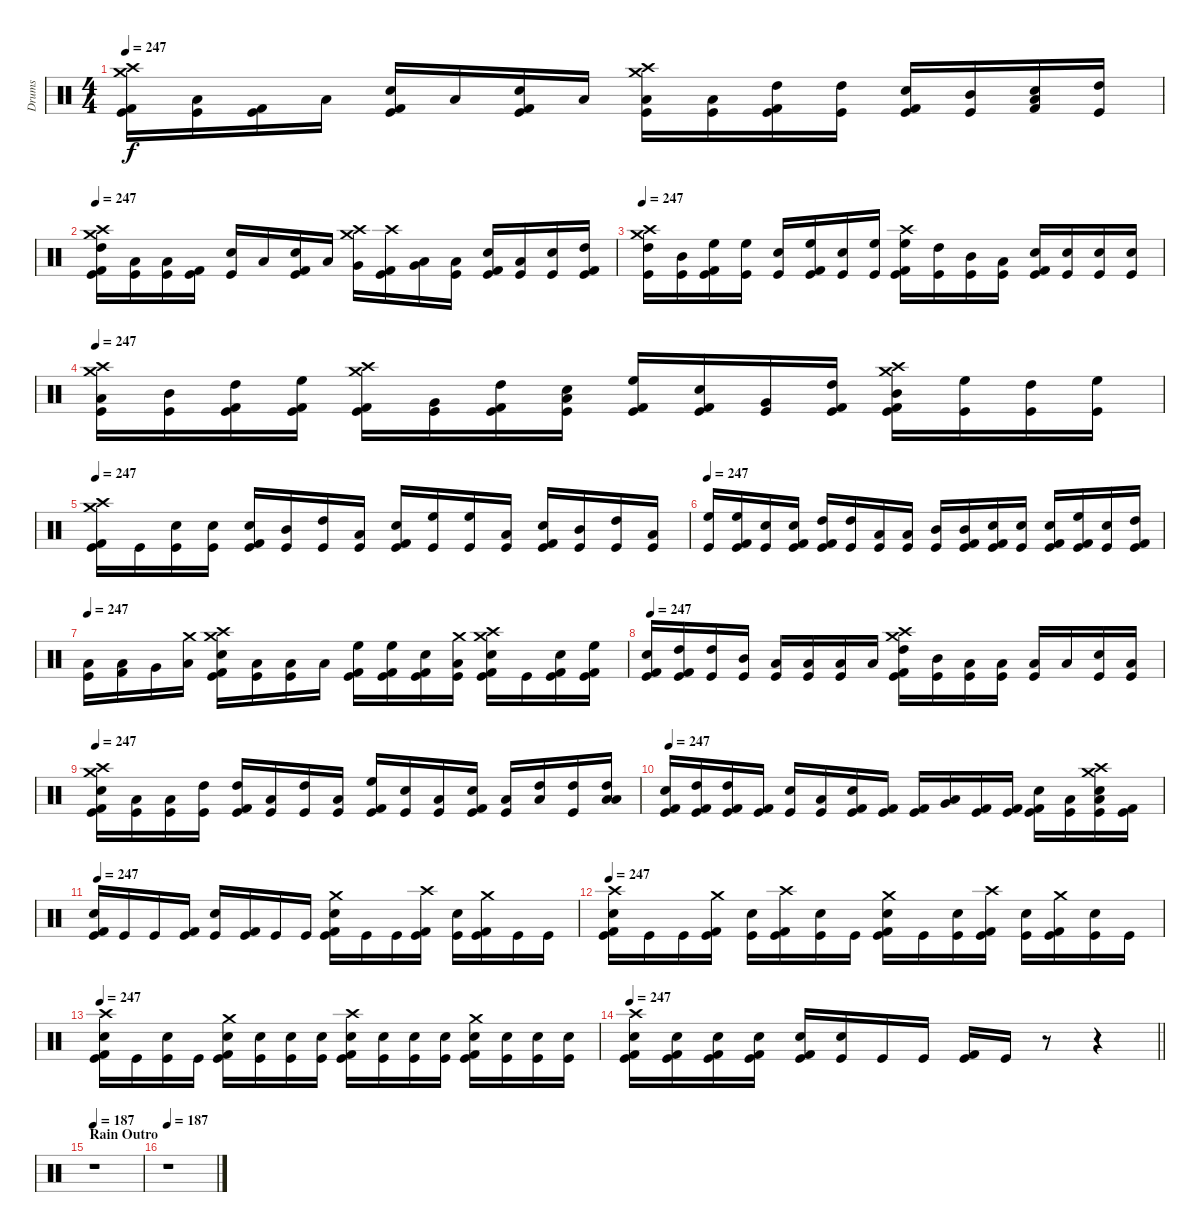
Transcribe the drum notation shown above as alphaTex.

\track ("Drums" "Drums") {instrument percussion}
\staff {score}
\articulation defaults
\ts (4 4)
\tempo 247
\clef neutral
\ks c
("Crash high (hit)" "Crash medium (hit)" "Kick (hit) 2" "Kick (hit)").16{dy f} ("Low Tom (hit)" "Kick (hit)").16 ("Kick (hit) 2" "Kick (hit)").16 "Low Floor Tom (hit)".16 ("Snare (hit) 2" "Kick (hit) 2" "Kick (hit)").16 "Low Floor Tom (hit)".16 ("Snare (hit) 2" "Kick (hit) 2" "Kick (hit)").16 "Low Floor Tom (hit)".16 ("Crash high (hit)" "Crash medium (hit)" "Low Tom (hit)" "Kick (hit)").16 ("Low Tom (hit)" "Kick (hit)").16 ("High Tom (hit)" "Kick (hit) 2" "Kick (hit)").16 ("High Tom (hit)" "Kick (hit)").16 ("Snare (hit) 2" "Kick (hit) 2" "Kick (hit)").16 ("Mid Tom (hit)" "Kick (hit)").16 ("Snare (hit) 2" "Kick (hit) 2" "Low Floor Tom (hit)").16 ("High Tom (hit)" "Kick (hit)").16 |
\tempo 247
("Crash high (hit)" "Crash medium (hit)" "High Tom (hit)" "Kick (hit) 2" "Kick (hit)").16 ("Low Tom (hit)" "Kick (hit)").16 ("Low Tom (hit)" "Kick (hit)").16 ("Kick (hit) 2" "Kick (hit)").16 ("Snare (hit) 2" "Kick (hit)").16 "Low Floor Tom (hit)".16 ("Snare (hit) 2" "Kick (hit) 2" "Kick (hit)").16 "Low Floor Tom (hit)".16 ("Crash high (hit)" "Crash medium (hit)" "Very Low Tom (hit)").16 ("Crash high (hit)" "Kick (hit) 2" "Kick (hit)").16 ("Very Low Tom (hit)" "Low Floor Tom (hit)").16 ("Low Tom (hit)" "Kick (hit)").16 ("Snare (hit) 2" "Kick (hit) 2" "Kick (hit)").16 ("Low Tom (hit)" "Kick (hit)").16 ("Snare (hit) 2" "Kick (hit)").16 ("High Tom (hit)" "Kick (hit) 2" "Kick (hit)").16 |
\tempo 247
("Crash high (hit)" "Crash medium (hit)" "High Tom (hit)" "Kick (hit)").16 ("Mid Tom (hit)" "Kick (hit)").16 ("High Floor Tom (hit)" "Kick (hit) 2" "Kick (hit)").16 ("High Floor Tom (hit)" "Kick (hit)").16 ("Snare (hit) 2" "Kick (hit)").16 ("High Floor Tom (hit)" "Kick (hit) 2" "Kick (hit)").16 ("Snare (hit) 2" "Kick (hit)").16 ("High Floor Tom (hit)" "Kick (hit)").16 ("Crash high (hit)" "High Floor Tom (hit)" "Kick (hit) 2" "Kick (hit)").16 ("High Tom (hit)" "Kick (hit)").16 ("Mid Tom (hit)" "Kick (hit)").16 ("Low Tom (hit)" "Kick (hit)").16 ("Snare (hit) 2" "Kick (hit) 2" "Kick (hit)").16 ("Snare (hit) 2" "Kick (hit)").16 ("Snare (hit) 2" "Kick (hit)").16 ("Snare (hit) 2" "Kick (hit)").16 |
\tempo 247
("Crash high (hit)" "Crash medium (hit)" "Low Tom (hit)" "Kick (hit)").16 ("Mid Tom (hit)" "Kick (hit)").16 ("High Tom (hit)" "Kick (hit) 2" "Kick (hit)").16 ("High Floor Tom (hit)" "Kick (hit) 2" "Kick (hit)").16 ("Crash high (hit)" "Crash medium (hit)" "Kick (hit) 2" "Kick (hit)").16 ("Very Low Tom (hit)" "Kick (hit)").16 ("High Tom (hit)" "Kick (hit) 2" "Kick (hit)").16 ("Snare (hit) 2" "Low Floor Tom (hit)" "Kick (hit)").16 ("High Floor Tom (hit)" "Kick (hit) 2" "Kick (hit)").16 ("Snare (hit) 2" "Kick (hit) 2" "Kick (hit)").16 ("Very Low Tom (hit)" "Kick (hit)").16 ("High Tom (hit)" "Kick (hit) 2" "Kick (hit)").16 ("Crash high (hit)" "Crash medium (hit)" "Mid Tom (hit)" "Kick (hit) 2" "Kick (hit)").16 ("High Floor Tom (hit)" "Kick (hit)").16 ("High Tom (hit)" "Kick (hit)").16 ("High Floor Tom (hit)" "Kick (hit)").16 |
\tempo 247
("Crash high (hit)" "Crash medium (hit)" "Kick (hit) 2" "Kick (hit)").16 "Kick (hit)".16 ("Snare (hit) 2" "Kick (hit)").16 ("Snare (hit) 2" "Kick (hit)").16 ("Snare (hit) 2" "Kick (hit) 2" "Kick (hit)").16 ("Mid Tom (hit)" "Kick (hit)").16 ("High Tom (hit)" "Kick (hit)").16 ("Low Tom (hit)" "Kick (hit)").16 ("Snare (hit) 2" "Kick (hit) 2" "Kick (hit)").16 ("High Floor Tom (hit)" "Kick (hit)").16 ("High Floor Tom (hit)" "Kick (hit)").16 ("Low Tom (hit)" "Kick (hit)").16 ("Snare (hit) 2" "Kick (hit) 2" "Kick (hit)").16 ("Mid Tom (hit)" "Kick (hit)").16 ("High Tom (hit)" "Kick (hit)").16 ("Low Tom (hit)" "Kick (hit)").16 |
\tempo 247
("High Floor Tom (hit)" "Kick (hit)").16 ("High Floor Tom (hit)" "Kick (hit) 2" "Kick (hit)").16 ("Snare (hit) 2" "Kick (hit)").16 ("Snare (hit) 2" "Kick (hit) 2" "Kick (hit)").16 ("High Tom (hit)" "Kick (hit) 2" "Kick (hit)").16 ("High Tom (hit)" "Kick (hit)").16 ("Low Tom (hit)" "Kick (hit)").16 ("Low Tom (hit)" "Kick (hit)").16 ("Mid Tom (hit)" "Kick (hit)").16 ("Mid Tom (hit)" "Kick (hit) 2" "Kick (hit)").16 ("Snare (hit) 2" "Kick (hit) 2" "Kick (hit)").16 ("Snare (hit) 2" "Kick (hit)").16 ("Snare (hit) 2" "Kick (hit) 2" "Kick (hit)").16 ("High Floor Tom (hit)" "Kick (hit) 2" "Kick (hit)").16 ("Snare (hit) 2" "Kick (hit)").16 ("High Tom (hit)" "Kick (hit) 2" "Kick (hit)").16 |
\tempo 247
("Low Tom (hit)" "Kick (hit)").16 ("Kick (hit) 2" "Low Floor Tom (hit)").16 "Very Low Tom (hit)".16 ("Crash medium (hit)" "Low Floor Tom (hit)").16 ("Crash high (hit)" "Crash medium (hit)" "Snare (hit) 2" "Kick (hit) 2" "Kick (hit)").16 ("Low Tom (hit)" "Kick (hit)").16 ("Low Tom (hit)" "Kick (hit)").16 "Low Floor Tom (hit)".16 ("High Floor Tom (hit)" "Kick (hit) 2" "Kick (hit)").16 ("High Floor Tom (hit)" "Kick (hit) 2" "Kick (hit)").16 ("Snare (hit) 2" "Kick (hit) 2" "Kick (hit)").16 ("Crash medium (hit)" "Low Tom (hit)" "Kick (hit)").16 ("Crash high (hit)" "Crash medium (hit)" "Snare (hit) 2" "Kick (hit) 2" "Kick (hit)").16 "Kick (hit)".16 ("Snare (hit) 2" "Kick (hit) 2" "Kick (hit)").16 ("High Floor Tom (hit)" "Kick (hit) 2" "Kick (hit)").16 |
\tempo 247
("Snare (hit) 2" "Kick (hit) 2" "Kick (hit)").16 ("High Tom (hit)" "Kick (hit) 2" "Kick (hit)").16 ("High Tom (hit)" "Kick (hit)").16 ("Mid Tom (hit)" "Kick (hit)").16 ("Low Tom (hit)" "Kick (hit)").16 ("Low Tom (hit)" "Kick (hit)").16 ("Low Tom (hit)" "Kick (hit)").16 "Low Floor Tom (hit)".16 ("Crash high (hit)" "Crash medium (hit)" "High Tom (hit)" "Kick (hit) 2" "Kick (hit)").16 ("Mid Tom (hit)" "Kick (hit)").16 ("Low Tom (hit)" "Kick (hit)").16 ("Low Tom (hit)" "Kick (hit)").16 ("Low Tom (hit)" "Kick (hit)").16 "Low Floor Tom (hit)".16 ("Snare (hit) 2" "Kick (hit)").16 ("Low Tom (hit)" "Kick (hit)").16 |
\tempo 247
("Crash high (hit)" "Crash medium (hit)" "Snare (hit) 2" "Kick (hit) 2" "Kick (hit)").16 ("Low Tom (hit)" "Kick (hit)").16 ("Low Tom (hit)" "Kick (hit)").16 ("High Tom (hit)" "Kick (hit)").16 ("High Tom (hit)" "Kick (hit) 2" "Kick (hit)").16 ("Low Tom (hit)" "Kick (hit)").16 ("High Tom (hit)" "Kick (hit)").16 ("Low Tom (hit)" "Kick (hit)").16 ("High Floor Tom (hit)" "Kick (hit) 2" "Kick (hit)").16 ("Snare (hit) 2" "Kick (hit)").16 ("Low Tom (hit)" "Kick (hit)").16 ("Snare (hit) 2" "Kick (hit) 2" "Kick (hit)").16 ("Low Tom (hit)" "Kick (hit)").16 ("High Tom (hit)" "Low Floor Tom (hit)").16 ("High Tom (hit)" "Kick (hit)").16 ("High Tom (hit)" "Low Tom (hit)" "Low Floor Tom (hit)").16 |
\tempo 247
("Snare (hit) 2" "Kick (hit) 2" "Kick (hit)").16 ("High Tom (hit)" "Kick (hit) 2" "Kick (hit)").16 ("High Tom (hit)" "Kick (hit) 2" "Kick (hit)").16 ("Kick (hit) 2" "Kick (hit)").16 ("Snare (hit) 2" "Kick (hit)").16 ("Low Tom (hit)" "Kick (hit)").16 ("Snare (hit) 2" "Kick (hit) 2" "Kick (hit)").16 ("Kick (hit) 2" "Kick (hit)").16 ("Kick (hit) 2" "Kick (hit)").16 ("Very Low Tom (hit)" "Low Floor Tom (hit)").16 ("Kick (hit) 2" "Kick (hit)").16 ("Kick (hit) 2" "Kick (hit)").16 ("Snare (hit) 2" "Kick (hit) 2" "Kick (hit)").16 ("Low Tom (hit)" "Kick (hit)").16 ("Crash high (hit)" "Crash medium (hit)" "Snare (hit) 2" "Low Tom (hit)" "Kick (hit)").16 ("Kick (hit) 2" "Kick (hit)").16 |
\tempo 247
("Snare (hit) 2" "Kick (hit) 2" "Kick (hit)").16 "Kick (hit)".16 "Kick (hit)".16 ("Kick (hit) 2" "Kick (hit)").16 ("Snare (hit) 2" "Kick (hit)").16 ("Kick (hit) 2" "Kick (hit)").16 "Kick (hit)".16 "Kick (hit)".16 ("Crash medium (hit)" "Snare (hit) 2" "Kick (hit) 2" "Kick (hit)").16 "Kick (hit)".16 "Kick (hit)".16 ("Crash high (hit)" "Kick (hit) 2" "Kick (hit)").16 ("Snare (hit) 2" "Kick (hit)").16 ("Crash medium (hit)" "Kick (hit) 2" "Kick (hit)").16 "Kick (hit)".16 "Kick (hit)".16 |
\tempo 247
("Crash high (hit)" "Snare (hit) 2" "Kick (hit) 2" "Kick (hit)").16 "Kick (hit)".16 "Kick (hit)".16 ("Crash medium (hit)" "Kick (hit) 2" "Kick (hit)").16 ("Snare (hit) 2" "Kick (hit)").16 ("Crash high (hit)" "Kick (hit) 2" "Kick (hit)").16 ("Snare (hit) 2" "Kick (hit)").16 "Kick (hit)".16 ("Crash medium (hit)" "Snare (hit) 2" "Kick (hit) 2" "Kick (hit)").16 "Kick (hit)".16 ("Snare (hit) 2" "Kick (hit)").16 ("Crash high (hit)" "Kick (hit) 2" "Kick (hit)").16 ("Snare (hit) 2" "Kick (hit)").16 ("Crash medium (hit)" "Kick (hit) 2" "Kick (hit)").16 ("Snare (hit) 2" "Kick (hit)").16 "Kick (hit)".16 |
\tempo 247
("Crash high (hit)" "Snare (hit) 2" "Kick (hit) 2" "Kick (hit)").16 "Kick (hit)".16 ("Snare (hit) 2" "Kick (hit)").16 "Kick (hit)".16 ("Crash medium (hit)" "Snare (hit) 2" "Kick (hit) 2" "Kick (hit)").16 ("Snare (hit) 2" "Kick (hit)").16 ("Snare (hit) 2" "Kick (hit)").16 ("Snare (hit) 2" "Kick (hit)").16 ("Crash high (hit)" "Snare (hit) 2" "Kick (hit) 2" "Kick (hit)").16 ("Snare (hit) 2" "Kick (hit)").16 ("Snare (hit) 2" "Kick (hit)").16 ("Snare (hit) 2" "Kick (hit)").16 ("Crash medium (hit)" "Snare (hit) 2" "Kick (hit) 2" "Kick (hit)").16 ("Snare (hit) 2" "Kick (hit)").16 ("Snare (hit) 2" "Kick (hit)").16 ("Snare (hit) 2" "Kick (hit)").16 |
\tempo 247
\barLineRight lightlight
("Crash high (hit)" "Snare (hit) 2" "Kick (hit) 2" "Kick (hit)").16 ("Snare (hit) 2" "Kick (hit) 2" "Kick (hit)").16 ("Snare (hit) 2" "Kick (hit) 2" "Kick (hit)").16 ("Snare (hit) 2" "Kick (hit) 2" "Kick (hit)").16 ("Snare (hit) 2" "Kick (hit) 2" "Kick (hit)").16 ("Snare (hit) 2" "Kick (hit)").16 "Kick (hit)".16 "Kick (hit)".16 ("Kick (hit) 2" "Kick (hit)").16 "Kick (hit)".16 r.8 r.4 |
\section ("" "Rain Outro")
\tempo 187
r.1 |
\tempo 187
r.1
